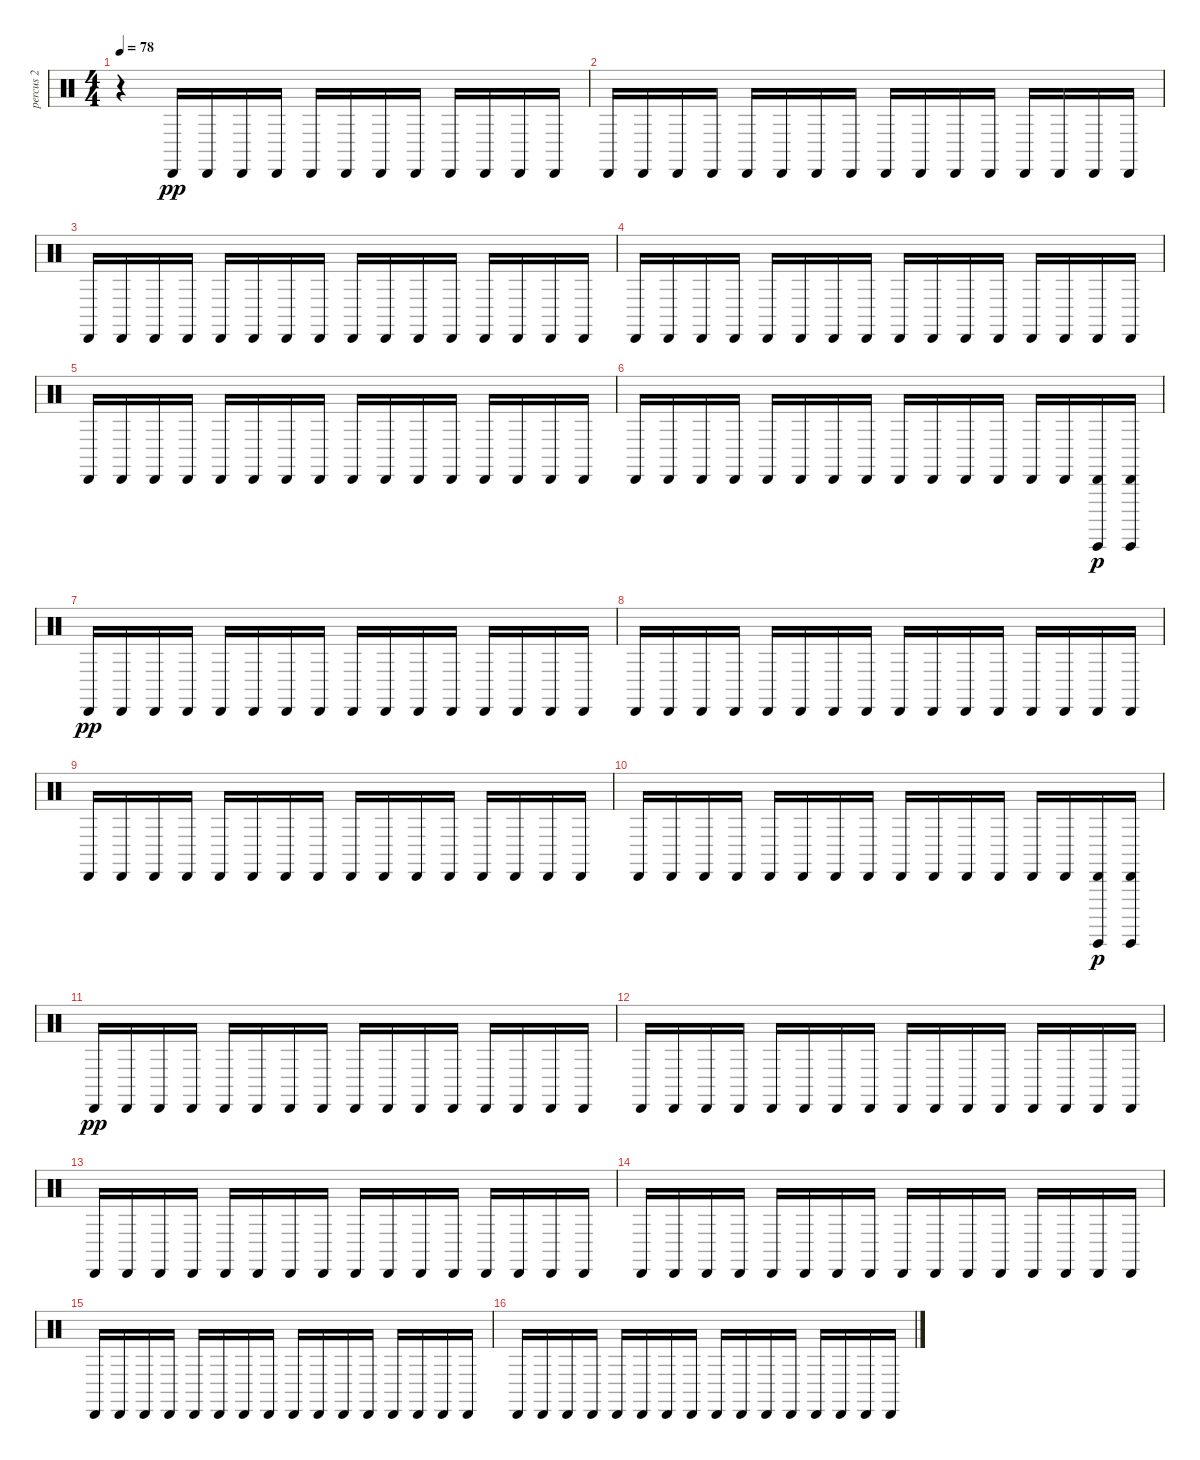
\track ("percus 2" "percus 2") {instrument percussion}
\staff {score}
\articulation defaults
\ts (4 4)
\tempo 78
\clef neutral
\ks c
r.4{dy pp} "Cabasa (hit)".16 "Cabasa (hit)".16 "Cabasa (hit)".16 "Cabasa (hit)".16 "Cabasa (hit)".16 "Cabasa (hit)".16 "Cabasa (hit)".16 "Cabasa (hit)".16 "Cabasa (hit)".16 "Cabasa (hit)".16 "Cabasa (hit)".16 "Cabasa (hit)".16 |
"Cabasa (hit)".16 "Cabasa (hit)".16 "Cabasa (hit)".16 "Cabasa (hit)".16 "Cabasa (hit)".16 "Cabasa (hit)".16 "Cabasa (hit)".16 "Cabasa (hit)".16 "Cabasa (hit)".16 "Cabasa (hit)".16 "Cabasa (hit)".16 "Cabasa (hit)".16 "Cabasa (hit)".16 "Cabasa (hit)".16 "Cabasa (hit)".16 "Cabasa (hit)".16 |
"Cabasa (hit)".16 "Cabasa (hit)".16 "Cabasa (hit)".16 "Cabasa (hit)".16 "Cabasa (hit)".16 "Cabasa (hit)".16 "Cabasa (hit)".16 "Cabasa (hit)".16 "Cabasa (hit)".16 "Cabasa (hit)".16 "Cabasa (hit)".16 "Cabasa (hit)".16 "Cabasa (hit)".16 "Cabasa (hit)".16 "Cabasa (hit)".16 "Cabasa (hit)".16 |
"Cabasa (hit)".16 "Cabasa (hit)".16 "Cabasa (hit)".16 "Cabasa (hit)".16 "Cabasa (hit)".16 "Cabasa (hit)".16 "Cabasa (hit)".16 "Cabasa (hit)".16 "Cabasa (hit)".16 "Cabasa (hit)".16 "Cabasa (hit)".16 "Cabasa (hit)".16 "Cabasa (hit)".16 "Cabasa (hit)".16 "Cabasa (hit)".16 "Cabasa (hit)".16 |
"Cabasa (hit)".16 "Cabasa (hit)".16 "Cabasa (hit)".16 "Cabasa (hit)".16 "Cabasa (hit)".16 "Cabasa (hit)".16 "Cabasa (hit)".16 "Cabasa (hit)".16 "Cabasa (hit)".16 "Cabasa (hit)".16 "Cabasa (hit)".16 "Cabasa (hit)".16 "Cabasa (hit)".16 "Cabasa (hit)".16 "Cabasa (hit)".16 "Cabasa (hit)".16 |
"Cabasa (hit)".16 "Cabasa (hit)".16 "Cabasa (hit)".16 "Cabasa (hit)".16 "Cabasa (hit)".16 "Cabasa (hit)".16 "Cabasa (hit)".16 "Cabasa (hit)".16 "Cabasa (hit)".16 "Cabasa (hit)".16 "Cabasa (hit)".16 "Cabasa (hit)".16 "Cabasa (hit)".16 "Cabasa (hit)".16 ("Cabasa (hit)" "Guiro (hit)").16{dy p} ("Cabasa (hit)" "Guiro (hit)").16 |
"Cabasa (hit)".16{dy pp} "Cabasa (hit)".16 "Cabasa (hit)".16 "Cabasa (hit)".16 "Cabasa (hit)".16 "Cabasa (hit)".16 "Cabasa (hit)".16 "Cabasa (hit)".16 "Cabasa (hit)".16 "Cabasa (hit)".16 "Cabasa (hit)".16 "Cabasa (hit)".16 "Cabasa (hit)".16 "Cabasa (hit)".16 "Cabasa (hit)".16 "Cabasa (hit)".16 |
"Cabasa (hit)".16 "Cabasa (hit)".16 "Cabasa (hit)".16 "Cabasa (hit)".16 "Cabasa (hit)".16 "Cabasa (hit)".16 "Cabasa (hit)".16 "Cabasa (hit)".16 "Cabasa (hit)".16 "Cabasa (hit)".16 "Cabasa (hit)".16 "Cabasa (hit)".16 "Cabasa (hit)".16 "Cabasa (hit)".16 "Cabasa (hit)".16 "Cabasa (hit)".16 |
"Cabasa (hit)".16 "Cabasa (hit)".16 "Cabasa (hit)".16 "Cabasa (hit)".16 "Cabasa (hit)".16 "Cabasa (hit)".16 "Cabasa (hit)".16 "Cabasa (hit)".16 "Cabasa (hit)".16 "Cabasa (hit)".16 "Cabasa (hit)".16 "Cabasa (hit)".16 "Cabasa (hit)".16 "Cabasa (hit)".16 "Cabasa (hit)".16 "Cabasa (hit)".16 |
"Cabasa (hit)".16 "Cabasa (hit)".16 "Cabasa (hit)".16 "Cabasa (hit)".16 "Cabasa (hit)".16 "Cabasa (hit)".16 "Cabasa (hit)".16 "Cabasa (hit)".16 "Cabasa (hit)".16 "Cabasa (hit)".16 "Cabasa (hit)".16 "Cabasa (hit)".16 "Cabasa (hit)".16 "Cabasa (hit)".16 ("Cabasa (hit)" "Guiro (hit)").16{dy p} ("Cabasa (hit)" "Guiro (hit)").16 |
"Cabasa (hit)".16{dy pp} "Cabasa (hit)".16 "Cabasa (hit)".16 "Cabasa (hit)".16 "Cabasa (hit)".16 "Cabasa (hit)".16 "Cabasa (hit)".16 "Cabasa (hit)".16 "Cabasa (hit)".16 "Cabasa (hit)".16 "Cabasa (hit)".16 "Cabasa (hit)".16 "Cabasa (hit)".16 "Cabasa (hit)".16 "Cabasa (hit)".16 "Cabasa (hit)".16 |
"Cabasa (hit)".16 "Cabasa (hit)".16 "Cabasa (hit)".16 "Cabasa (hit)".16 "Cabasa (hit)".16 "Cabasa (hit)".16 "Cabasa (hit)".16 "Cabasa (hit)".16 "Cabasa (hit)".16 "Cabasa (hit)".16 "Cabasa (hit)".16 "Cabasa (hit)".16 "Cabasa (hit)".16 "Cabasa (hit)".16 "Cabasa (hit)".16 "Cabasa (hit)".16 |
"Cabasa (hit)".16 "Cabasa (hit)".16 "Cabasa (hit)".16 "Cabasa (hit)".16 "Cabasa (hit)".16 "Cabasa (hit)".16 "Cabasa (hit)".16 "Cabasa (hit)".16 "Cabasa (hit)".16 "Cabasa (hit)".16 "Cabasa (hit)".16 "Cabasa (hit)".16 "Cabasa (hit)".16 "Cabasa (hit)".16 "Cabasa (hit)".16 "Cabasa (hit)".16 |
"Cabasa (hit)".16 "Cabasa (hit)".16 "Cabasa (hit)".16 "Cabasa (hit)".16 "Cabasa (hit)".16 "Cabasa (hit)".16 "Cabasa (hit)".16 "Cabasa (hit)".16 "Cabasa (hit)".16 "Cabasa (hit)".16 "Cabasa (hit)".16 "Cabasa (hit)".16 "Cabasa (hit)".16 "Cabasa (hit)".16 "Cabasa (hit)".16 "Cabasa (hit)".16 |
"Cabasa (hit)".16 "Cabasa (hit)".16 "Cabasa (hit)".16 "Cabasa (hit)".16 "Cabasa (hit)".16 "Cabasa (hit)".16 "Cabasa (hit)".16 "Cabasa (hit)".16 "Cabasa (hit)".16 "Cabasa (hit)".16 "Cabasa (hit)".16 "Cabasa (hit)".16 "Cabasa (hit)".16 "Cabasa (hit)".16 "Cabasa (hit)".16 "Cabasa (hit)".16 |
"Cabasa (hit)".16 "Cabasa (hit)".16 "Cabasa (hit)".16 "Cabasa (hit)".16 "Cabasa (hit)".16 "Cabasa (hit)".16 "Cabasa (hit)".16 "Cabasa (hit)".16 "Cabasa (hit)".16 "Cabasa (hit)".16 "Cabasa (hit)".16 "Cabasa (hit)".16 "Cabasa (hit)".16 "Cabasa (hit)".16 "Cabasa (hit)".16 "Cabasa (hit)".16
